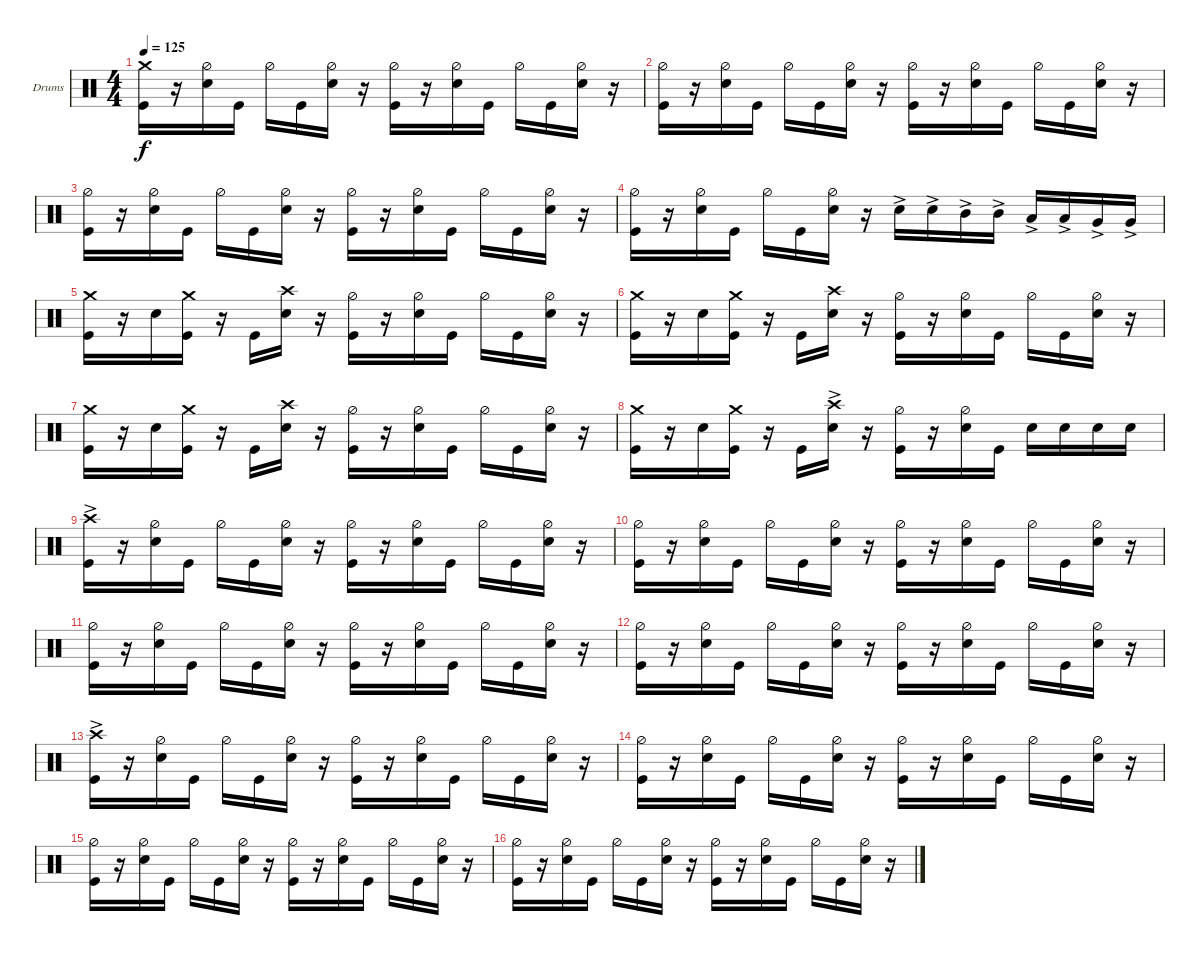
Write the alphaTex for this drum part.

\defaultSystemsLayout 4
\bracketExtendMode groupsimilarinstruments
\firstSystemTrackNameOrientation horizontal
\otherSystemsTrackNameOrientation horizontal
\track ("Lorenzo Milani" "Drums") {instrument percussion}
\staff {score}
\articulation defaults
\ts (4 4)
\tempo 125
\clef neutral
\ks c
("Kick (hit)" "Crash medium (hit)").16{dy f} r.16 ("Snare (hit) 2" "Hi-Hat (half)").16 "Kick (hit)".16 "Hi-Hat (half)".16 "Kick (hit)".16 ("Snare (hit) 2" "Hi-Hat (half)").16 r.16 ("Kick (hit)" "Hi-Hat (half)").16 r.16 ("Snare (hit) 2" "Hi-Hat (half)").16 "Kick (hit)".16 "Hi-Hat (half)".16 "Kick (hit)".16 ("Snare (hit) 2" "Hi-Hat (half)").16 r.16 |
("Kick (hit)" "Hi-Hat (half)").16 r.16 ("Snare (hit) 2" "Hi-Hat (half)").16 "Kick (hit)".16 "Hi-Hat (half)".16 "Kick (hit)".16 ("Snare (hit) 2" "Hi-Hat (half)").16 r.16 ("Kick (hit)" "Hi-Hat (half)").16 r.16 ("Snare (hit) 2" "Hi-Hat (half)").16 "Kick (hit)".16 "Hi-Hat (half)".16 "Kick (hit)".16 ("Snare (hit) 2" "Hi-Hat (half)").16 r.16 |
("Kick (hit)" "Hi-Hat (half)").16 r.16 ("Snare (hit) 2" "Hi-Hat (half)").16 "Kick (hit)".16 "Hi-Hat (half)".16 "Kick (hit)".16 ("Snare (hit) 2" "Hi-Hat (half)").16 r.16 ("Kick (hit)" "Hi-Hat (half)").16 r.16 ("Snare (hit) 2" "Hi-Hat (half)").16 "Kick (hit)".16 "Hi-Hat (half)".16 "Kick (hit)".16 ("Snare (hit) 2" "Hi-Hat (half)").16 r.16 |
("Kick (hit)" "Hi-Hat (half)").16 r.16 ("Snare (hit) 2" "Hi-Hat (half)").16 "Kick (hit)".16 "Hi-Hat (half)".16 "Kick (hit)".16 ("Snare (hit) 2" "Hi-Hat (half)").16 r.16 "Snare (hit) 2"{ac}.16 "Snare (hit) 2"{ac}.16 "Mid Tom (hit)"{ac}.16 "Mid Tom (hit)"{ac}.16 "Low Tom (hit)"{ac}.16 "Low Tom (hit)"{ac}.16 "Very Low Tom (hit)"{ac}.16 "Very Low Tom (hit)"{ac}.16 |
("Kick (hit)" "Crash medium (hit)").16 r.16 "Snare (hit) 2".16 ("Kick (hit)" "Crash medium (hit)").16 r.16 "Kick (hit)".16 ("Crash high (hit)" "Snare (hit) 2").16 r.16 ("Kick (hit)" "Hi-Hat (half)").16 r.16 ("Snare (hit) 2" "Hi-Hat (half)").16 "Kick (hit)".16 "Hi-Hat (half)".16 "Kick (hit)".16 ("Snare (hit) 2" "Hi-Hat (half)").16 r.16 |
("Kick (hit)" "Crash medium (hit)").16 r.16 "Snare (hit) 2".16 ("Kick (hit)" "Crash medium (hit)").16 r.16 "Kick (hit)".16 ("Crash high (hit)" "Snare (hit) 2").16 r.16 ("Kick (hit)" "Hi-Hat (half)").16 r.16 ("Snare (hit) 2" "Hi-Hat (half)").16 "Kick (hit)".16 "Hi-Hat (half)".16 "Kick (hit)".16 ("Snare (hit) 2" "Hi-Hat (half)").16 r.16 |
("Kick (hit)" "Crash medium (hit)").16 r.16 "Snare (hit) 2".16 ("Kick (hit)" "Crash medium (hit)").16 r.16 "Kick (hit)".16 ("Crash high (hit)" "Snare (hit) 2").16 r.16 ("Kick (hit)" "Hi-Hat (half)").16 r.16 ("Snare (hit) 2" "Hi-Hat (half)").16 "Kick (hit)".16 "Hi-Hat (half)".16 "Kick (hit)".16 ("Snare (hit) 2" "Hi-Hat (half)").16 r.16 |
("Kick (hit)" "Crash medium (hit)").16 r.16 "Snare (hit) 2".16 ("Kick (hit)" "Crash medium (hit)").16 r.16 "Kick (hit)".16 ("Snare (hit) 2"{ac} "Crash high (hit)"{ac}).16 r.16 ("Kick (hit)" "Hi-Hat (half)").16 r.16 ("Snare (hit) 2" "Hi-Hat (half)").16 "Kick (hit)".16 "Snare (hit) 2".16 "Snare (hit) 2".16 "Snare (hit) 2".16 "Snare (hit) 2".16 |
("Kick (hit)"{ac} "Crash high (hit)"{ac}).16 r.16 ("Snare (hit) 2" "Hi-Hat (half)").16 "Kick (hit)".16 "Hi-Hat (half)".16 "Kick (hit)".16 ("Snare (hit) 2" "Hi-Hat (half)").16 r.16 ("Kick (hit)" "Hi-Hat (half)").16 r.16 ("Snare (hit) 2" "Hi-Hat (half)").16 "Kick (hit)".16 "Hi-Hat (half)".16 "Kick (hit)".16 ("Snare (hit) 2" "Hi-Hat (half)").16 r.16 |
("Kick (hit)" "Hi-Hat (half)").16 r.16 ("Snare (hit) 2" "Hi-Hat (half)").16 "Kick (hit)".16 "Hi-Hat (half)".16 "Kick (hit)".16 ("Snare (hit) 2" "Hi-Hat (half)").16 r.16 ("Kick (hit)" "Hi-Hat (half)").16 r.16 ("Snare (hit) 2" "Hi-Hat (half)").16 "Kick (hit)".16 "Hi-Hat (half)".16 "Kick (hit)".16 ("Snare (hit) 2" "Hi-Hat (half)").16 r.16 |
("Kick (hit)" "Hi-Hat (half)").16 r.16 ("Snare (hit) 2" "Hi-Hat (half)").16 "Kick (hit)".16 "Hi-Hat (half)".16 "Kick (hit)".16 ("Snare (hit) 2" "Hi-Hat (half)").16 r.16 ("Kick (hit)" "Hi-Hat (half)").16 r.16 ("Snare (hit) 2" "Hi-Hat (half)").16 "Kick (hit)".16 "Hi-Hat (half)".16 "Kick (hit)".16 ("Snare (hit) 2" "Hi-Hat (half)").16 r.16 |
("Kick (hit)" "Hi-Hat (half)").16 r.16 ("Snare (hit) 2" "Hi-Hat (half)").16 "Kick (hit)".16 "Hi-Hat (half)".16 "Kick (hit)".16 ("Snare (hit) 2" "Hi-Hat (half)").16 r.16 ("Kick (hit)" "Hi-Hat (half)").16 r.16 ("Snare (hit) 2" "Hi-Hat (half)").16 "Kick (hit)".16 "Hi-Hat (half)".16 "Kick (hit)".16 ("Snare (hit) 2" "Hi-Hat (half)").16 r.16 |
("Kick (hit)"{ac} "Crash high (hit)"{ac}).16 r.16 ("Snare (hit) 2" "Hi-Hat (half)").16 "Kick (hit)".16 "Hi-Hat (half)".16 "Kick (hit)".16 ("Snare (hit) 2" "Hi-Hat (half)").16 r.16 ("Kick (hit)" "Hi-Hat (half)").16 r.16 ("Snare (hit) 2" "Hi-Hat (half)").16 "Kick (hit)".16 "Hi-Hat (half)".16 "Kick (hit)".16 ("Snare (hit) 2" "Hi-Hat (half)").16 r.16 |
("Kick (hit)" "Hi-Hat (half)").16 r.16 ("Snare (hit) 2" "Hi-Hat (half)").16 "Kick (hit)".16 "Hi-Hat (half)".16 "Kick (hit)".16 ("Snare (hit) 2" "Hi-Hat (half)").16 r.16 ("Kick (hit)" "Hi-Hat (half)").16 r.16 ("Snare (hit) 2" "Hi-Hat (half)").16 "Kick (hit)".16 "Hi-Hat (half)".16 "Kick (hit)".16 ("Snare (hit) 2" "Hi-Hat (half)").16 r.16 |
("Kick (hit)" "Hi-Hat (half)").16 r.16 ("Snare (hit) 2" "Hi-Hat (half)").16 "Kick (hit)".16 "Hi-Hat (half)".16 "Kick (hit)".16 ("Snare (hit) 2" "Hi-Hat (half)").16 r.16 ("Kick (hit)" "Hi-Hat (half)").16 r.16 ("Snare (hit) 2" "Hi-Hat (half)").16 "Kick (hit)".16 "Hi-Hat (half)".16 "Kick (hit)".16 ("Snare (hit) 2" "Hi-Hat (half)").16 r.16 |
("Kick (hit)" "Hi-Hat (half)").16 r.16 ("Snare (hit) 2" "Hi-Hat (half)").16 "Kick (hit)".16 "Hi-Hat (half)".16 "Kick (hit)".16 ("Snare (hit) 2" "Hi-Hat (half)").16 r.16 ("Kick (hit)" "Hi-Hat (half)").16 r.16 ("Snare (hit) 2" "Hi-Hat (half)").16 "Kick (hit)".16 "Hi-Hat (half)".16 "Kick (hit)".16 ("Snare (hit) 2" "Hi-Hat (half)").16 r.16
